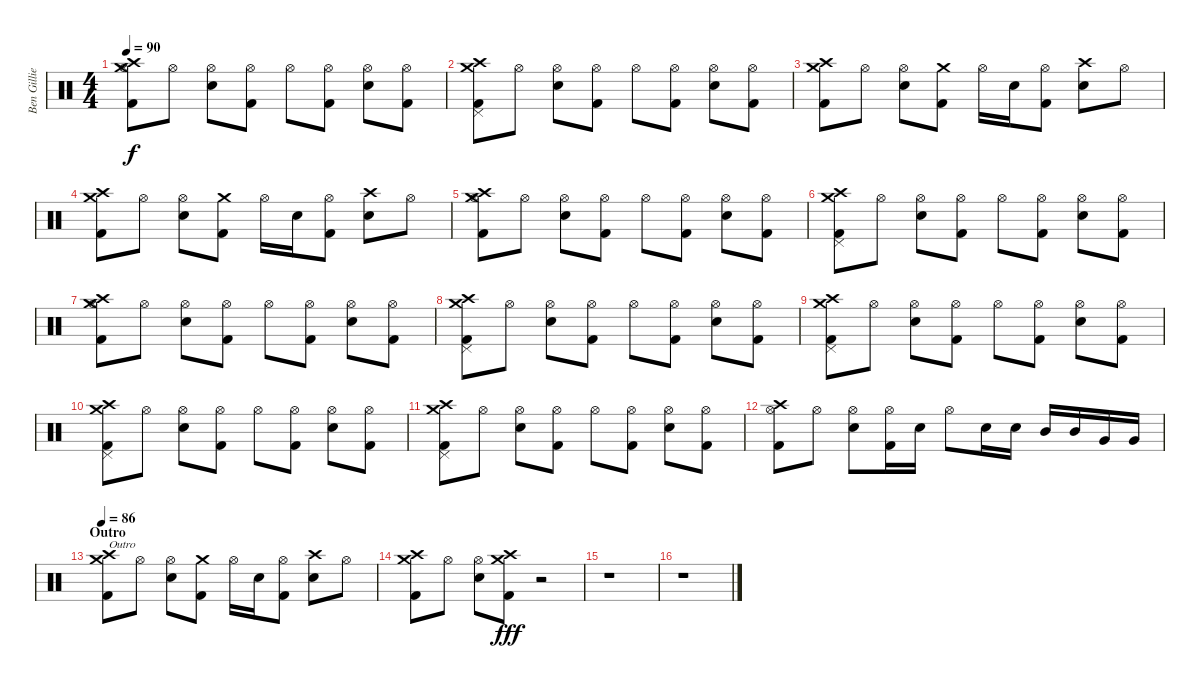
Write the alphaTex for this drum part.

\track ("Ben Gillies" "Ben Gillie") {instrument percussion}
\staff {score}
\articulation defaults
\ts (4 4)
\tempo 90
\clef neutral
\ks c
("Crash high (hit)" "Hi-Hat (open)" "Crash medium (hit)" "Kick (hit) 2").8{dy f} "Hi-Hat (open)".8 ("Hi-Hat (open)" "Electric Snare (hit)").8 ("Hi-Hat (open)" "Kick (hit) 2").8 "Hi-Hat (open)".8 ("Hi-Hat (open)" "Kick (hit) 2").8 ("Hi-Hat (open)" "Electric Snare (hit)").8 ("Hi-Hat (open)" "Kick (hit) 2").8 |
("Crash high (hit)" "Pedal Hi-Hat (hit)" "Crash medium (hit)" "Kick (hit) 2").8 "Hi-Hat (open)".8 ("Hi-Hat (open)" "Electric Snare (hit)").8 ("Hi-Hat (open)" "Kick (hit) 2").8 "Hi-Hat (open)".8 ("Hi-Hat (open)" "Kick (hit) 2").8 ("Hi-Hat (open)" "Electric Snare (hit)").8 ("Hi-Hat (open)" "Kick (hit) 2").8 |
("Crash high (hit)" "Crash medium (hit)" "Kick (hit) 2").8 "Hi-Hat (open)".8 ("Hi-Hat (open)" "Electric Snare (hit)").8 ("Crash medium (hit)" "Kick (hit) 2").8 "Hi-Hat (open)".16 "Electric Snare (hit)".16 ("Hi-Hat (open)" "Kick (hit) 2").8 ("Crash high (hit)" "Electric Snare (hit)").8 "Hi-Hat (open)".8 |
("Crash high (hit)" "Crash medium (hit)" "Kick (hit) 2").8 "Hi-Hat (open)".8 ("Hi-Hat (open)" "Electric Snare (hit)").8 ("Crash medium (hit)" "Kick (hit) 2").8 "Hi-Hat (open)".16 "Electric Snare (hit)".16 ("Hi-Hat (open)" "Kick (hit) 2").8 ("Crash high (hit)" "Electric Snare (hit)").8 "Hi-Hat (open)".8 |
("Crash high (hit)" "Hi-Hat (open)" "Crash medium (hit)" "Kick (hit) 2").8 "Hi-Hat (open)".8 ("Hi-Hat (open)" "Electric Snare (hit)").8 ("Hi-Hat (open)" "Kick (hit) 2").8 "Hi-Hat (open)".8 ("Hi-Hat (open)" "Kick (hit) 2").8 ("Hi-Hat (open)" "Electric Snare (hit)").8 ("Hi-Hat (open)" "Kick (hit) 2").8 |
("Crash high (hit)" "Pedal Hi-Hat (hit)" "Crash medium (hit)" "Kick (hit) 2").8 "Hi-Hat (open)".8 ("Hi-Hat (open)" "Electric Snare (hit)").8 ("Hi-Hat (open)" "Kick (hit) 2").8 "Hi-Hat (open)".8 ("Hi-Hat (open)" "Kick (hit) 2").8 ("Hi-Hat (open)" "Electric Snare (hit)").8 ("Hi-Hat (open)" "Kick (hit) 2").8 |
("Crash high (hit)" "Hi-Hat (open)" "Crash medium (hit)" "Kick (hit) 2").8 "Hi-Hat (open)".8 ("Hi-Hat (open)" "Electric Snare (hit)").8 ("Hi-Hat (open)" "Kick (hit) 2").8 "Hi-Hat (open)".8 ("Hi-Hat (open)" "Kick (hit) 2").8 ("Hi-Hat (open)" "Electric Snare (hit)").8 ("Hi-Hat (open)" "Kick (hit) 2").8 |
("Crash high (hit)" "Pedal Hi-Hat (hit)" "Crash medium (hit)" "Kick (hit) 2").8 "Hi-Hat (open)".8 ("Hi-Hat (open)" "Electric Snare (hit)").8 ("Hi-Hat (open)" "Kick (hit) 2").8 "Hi-Hat (open)".8 ("Hi-Hat (open)" "Kick (hit) 2").8 ("Hi-Hat (open)" "Electric Snare (hit)").8 ("Hi-Hat (open)" "Kick (hit) 2").8 |
("Crash high (hit)" "Pedal Hi-Hat (hit)" "Crash medium (hit)" "Kick (hit) 2").8 "Hi-Hat (open)".8 ("Hi-Hat (open)" "Electric Snare (hit)").8 ("Hi-Hat (open)" "Kick (hit) 2").8 "Hi-Hat (open)".8 ("Hi-Hat (open)" "Kick (hit) 2").8 ("Hi-Hat (open)" "Electric Snare (hit)").8 ("Hi-Hat (open)" "Kick (hit) 2").8 |
("Crash high (hit)" "Pedal Hi-Hat (hit)" "Crash medium (hit)" "Kick (hit) 2").8 "Hi-Hat (open)".8 ("Hi-Hat (open)" "Electric Snare (hit)").8 ("Hi-Hat (open)" "Kick (hit) 2").8 "Hi-Hat (open)".8 ("Hi-Hat (open)" "Kick (hit) 2").8 ("Hi-Hat (open)" "Electric Snare (hit)").8 ("Hi-Hat (open)" "Kick (hit) 2").8 |
("Crash high (hit)" "Pedal Hi-Hat (hit)" "Crash medium (hit)" "Kick (hit) 2").8 "Hi-Hat (open)".8 ("Hi-Hat (open)" "Electric Snare (hit)").8 ("Hi-Hat (open)" "Kick (hit) 2").8 "Hi-Hat (open)".8 ("Hi-Hat (open)" "Kick (hit) 2").8 ("Hi-Hat (open)" "Electric Snare (hit)").8 ("Hi-Hat (open)" "Kick (hit) 2").8 |
("Crash high (hit)" "Hi-Hat (open)" "Kick (hit) 2").8 "Hi-Hat (open)".8 ("Hi-Hat (open)" "Electric Snare (hit)").8 ("Hi-Hat (open)" "Kick (hit) 2").16 "Electric Snare (hit)".16 "Hi-Hat (open)".8 "Electric Snare (hit)".16 "Electric Snare (hit)".16 "Mid Tom (hit)".16 "Mid Tom (hit)".16 "Very Low Tom (hit)".16 "Very Low Tom (hit)".16 |
\section ("" "Outro")
\tempo 86
("Crash medium (hit)" "Crash high (hit)" "Kick (hit) 2").8{txt "Outro"} "Hi-Hat (open)".8 ("Hi-Hat (open)" "Electric Snare (hit)").8 ("Crash medium (hit)" "Kick (hit) 2").8 "Hi-Hat (open)".16 "Electric Snare (hit)".16 ("Hi-Hat (open)" "Kick (hit) 2").8 ("Crash high (hit)" "Electric Snare (hit)").8 "Hi-Hat (open)".8 |
("Crash medium (hit)" "Crash high (hit)" "Kick (hit) 2").8 "Hi-Hat (open)".8 ("Hi-Hat (open)" "Electric Snare (hit)").8 ("Crash medium (hit)" "Crash high (hit)" "Kick (hit) 2").8{dy fff} r.2 |
r.1 |
r.1
